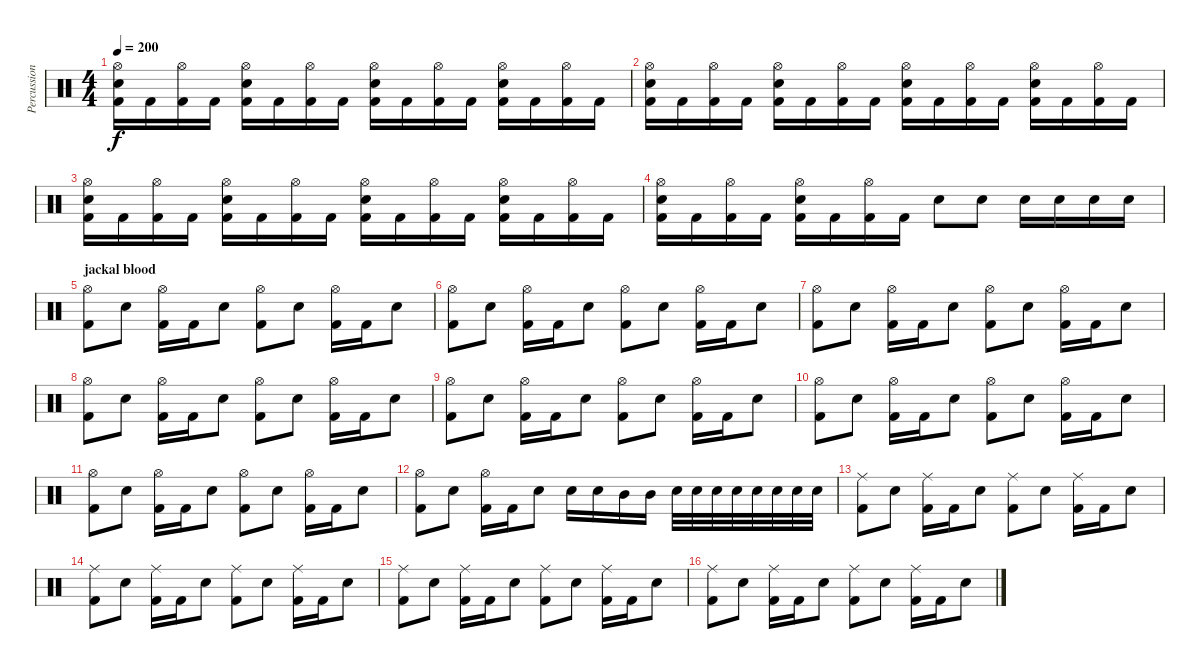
\track ("Percussions" "Percussion") {instrument percussion}
\staff {score}
\articulation defaults
\ts (4 4)
\tempo 200
\clef neutral
\ks c
("Hi-Hat (open)" "Electric Snare (hit)" "Kick (hit) 2").16{dy f} "Kick (hit) 2".16 ("Hi-Hat (open)" "Kick (hit) 2").16 "Kick (hit) 2".16 ("Hi-Hat (open)" "Electric Snare (hit)" "Kick (hit) 2").16 "Kick (hit) 2".16 ("Hi-Hat (open)" "Kick (hit) 2").16 "Kick (hit) 2".16 ("Hi-Hat (open)" "Electric Snare (hit)" "Kick (hit) 2").16 "Kick (hit) 2".16 ("Hi-Hat (open)" "Kick (hit) 2").16 "Kick (hit) 2".16 ("Hi-Hat (open)" "Electric Snare (hit)" "Kick (hit) 2").16 "Kick (hit) 2".16 ("Hi-Hat (open)" "Kick (hit) 2").16 "Kick (hit) 2".16 |
("Hi-Hat (open)" "Electric Snare (hit)" "Kick (hit) 2").16 "Kick (hit) 2".16 ("Hi-Hat (open)" "Kick (hit) 2").16 "Kick (hit) 2".16 ("Hi-Hat (open)" "Electric Snare (hit)" "Kick (hit) 2").16 "Kick (hit) 2".16 ("Hi-Hat (open)" "Kick (hit) 2").16 "Kick (hit) 2".16 ("Hi-Hat (open)" "Electric Snare (hit)" "Kick (hit) 2").16 "Kick (hit) 2".16 ("Hi-Hat (open)" "Kick (hit) 2").16 "Kick (hit) 2".16 ("Hi-Hat (open)" "Electric Snare (hit)" "Kick (hit) 2").16 "Kick (hit) 2".16 ("Hi-Hat (open)" "Kick (hit) 2").16 "Kick (hit) 2".16 |
("Hi-Hat (open)" "Electric Snare (hit)" "Kick (hit) 2").16 "Kick (hit) 2".16 ("Hi-Hat (open)" "Kick (hit) 2").16 "Kick (hit) 2".16 ("Hi-Hat (open)" "Electric Snare (hit)" "Kick (hit) 2").16 "Kick (hit) 2".16 ("Hi-Hat (open)" "Kick (hit) 2").16 "Kick (hit) 2".16 ("Hi-Hat (open)" "Electric Snare (hit)" "Kick (hit) 2").16 "Kick (hit) 2".16 ("Hi-Hat (open)" "Kick (hit) 2").16 "Kick (hit) 2".16 ("Hi-Hat (open)" "Electric Snare (hit)" "Kick (hit) 2").16 "Kick (hit) 2".16 ("Hi-Hat (open)" "Kick (hit) 2").16 "Kick (hit) 2".16 |
("Hi-Hat (open)" "Electric Snare (hit)" "Kick (hit) 2").16 "Kick (hit) 2".16 ("Hi-Hat (open)" "Kick (hit) 2").16 "Kick (hit) 2".16 ("Hi-Hat (open)" "Electric Snare (hit)" "Kick (hit) 2").16 "Kick (hit) 2".16 ("Hi-Hat (open)" "Kick (hit) 2").16 "Kick (hit) 2".16 "Electric Snare (hit)".8 "Electric Snare (hit)".8 "Electric Snare (hit)".16 "Electric Snare (hit)".16 "Electric Snare (hit)".16 "Electric Snare (hit)".16 |
\section ("" "jackal blood")
("Hi-Hat (open)" "Kick (hit) 2").8 "Electric Snare (hit)".8 ("Hi-Hat (open)" "Kick (hit) 2").16 "Kick (hit) 2".16 "Electric Snare (hit)".8 ("Hi-Hat (open)" "Kick (hit) 2").8 "Electric Snare (hit)".8 ("Hi-Hat (open)" "Kick (hit) 2").16 "Kick (hit) 2".16 "Electric Snare (hit)".8 |
("Hi-Hat (open)" "Kick (hit) 2").8 "Electric Snare (hit)".8 ("Hi-Hat (open)" "Kick (hit) 2").16 "Kick (hit) 2".16 "Electric Snare (hit)".8 ("Hi-Hat (open)" "Kick (hit) 2").8 "Electric Snare (hit)".8 ("Hi-Hat (open)" "Kick (hit) 2").16 "Kick (hit) 2".16 "Electric Snare (hit)".8 |
("Hi-Hat (open)" "Kick (hit) 2").8 "Electric Snare (hit)".8 ("Hi-Hat (open)" "Kick (hit) 2").16 "Kick (hit) 2".16 "Electric Snare (hit)".8 ("Hi-Hat (open)" "Kick (hit) 2").8 "Electric Snare (hit)".8 ("Hi-Hat (open)" "Kick (hit) 2").16 "Kick (hit) 2".16 "Electric Snare (hit)".8 |
("Hi-Hat (open)" "Kick (hit) 2").8 "Electric Snare (hit)".8 ("Hi-Hat (open)" "Kick (hit) 2").16 "Kick (hit) 2".16 "Electric Snare (hit)".8 ("Hi-Hat (open)" "Kick (hit) 2").8 "Electric Snare (hit)".8 ("Hi-Hat (open)" "Kick (hit) 2").16 "Kick (hit) 2".16 "Electric Snare (hit)".8 |
("Hi-Hat (open)" "Kick (hit) 2").8 "Electric Snare (hit)".8 ("Hi-Hat (open)" "Kick (hit) 2").16 "Kick (hit) 2".16 "Electric Snare (hit)".8 ("Hi-Hat (open)" "Kick (hit) 2").8 "Electric Snare (hit)".8 ("Hi-Hat (open)" "Kick (hit) 2").16 "Kick (hit) 2".16 "Electric Snare (hit)".8 |
("Hi-Hat (open)" "Kick (hit) 2").8 "Electric Snare (hit)".8 ("Hi-Hat (open)" "Kick (hit) 2").16 "Kick (hit) 2".16 "Electric Snare (hit)".8 ("Hi-Hat (open)" "Kick (hit) 2").8 "Electric Snare (hit)".8 ("Hi-Hat (open)" "Kick (hit) 2").16 "Kick (hit) 2".16 "Electric Snare (hit)".8 |
("Hi-Hat (open)" "Kick (hit) 2").8 "Electric Snare (hit)".8 ("Hi-Hat (open)" "Kick (hit) 2").16 "Kick (hit) 2".16 "Electric Snare (hit)".8 ("Hi-Hat (open)" "Kick (hit) 2").8 "Electric Snare (hit)".8 ("Hi-Hat (open)" "Kick (hit) 2").16 "Kick (hit) 2".16 "Electric Snare (hit)".8 |
("Hi-Hat (open)" "Kick (hit) 2").8 "Electric Snare (hit)".8 ("Hi-Hat (open)" "Kick (hit) 2").16 "Kick (hit) 2".16 "Electric Snare (hit)".8 "Electric Snare (hit)".16 "Electric Snare (hit)".16 "Mid Tom (hit)".16 "Mid Tom (hit)".16 "Electric Snare (hit)".32 "Electric Snare (hit)".32 "Electric Snare (hit)".32 "Electric Snare (hit)".32 "Electric Snare (hit)".32 "Electric Snare (hit)".32 "Electric Snare (hit)".32 "Electric Snare (hit)".32 |
("Ride (middle)" "Kick (hit) 2").8 "Electric Snare (hit)".8 ("Ride (middle)" "Kick (hit) 2").16 "Kick (hit) 2".16 "Electric Snare (hit)".8 ("Ride (middle)" "Kick (hit) 2").8 "Electric Snare (hit)".8 ("Ride (middle)" "Kick (hit) 2").16 "Kick (hit) 2".16 "Electric Snare (hit)".8 |
("Ride (middle)" "Kick (hit) 2").8 "Electric Snare (hit)".8 ("Ride (middle)" "Kick (hit) 2").16 "Kick (hit) 2".16 "Electric Snare (hit)".8 ("Ride (middle)" "Kick (hit) 2").8 "Electric Snare (hit)".8 ("Ride (middle)" "Kick (hit) 2").16 "Kick (hit) 2".16 "Electric Snare (hit)".8 |
("Ride (middle)" "Kick (hit) 2").8 "Electric Snare (hit)".8 ("Ride (middle)" "Kick (hit) 2").16 "Kick (hit) 2".16 "Electric Snare (hit)".8 ("Ride (middle)" "Kick (hit) 2").8 "Electric Snare (hit)".8 ("Ride (middle)" "Kick (hit) 2").16 "Kick (hit) 2".16 "Electric Snare (hit)".8 |
("Ride (middle)" "Kick (hit) 2").8 "Electric Snare (hit)".8 ("Ride (middle)" "Kick (hit) 2").16 "Kick (hit) 2".16 "Electric Snare (hit)".8 ("Ride (middle)" "Kick (hit) 2").8 "Electric Snare (hit)".8 ("Ride (middle)" "Kick (hit) 2").16 "Kick (hit) 2".16 "Electric Snare (hit)".8
